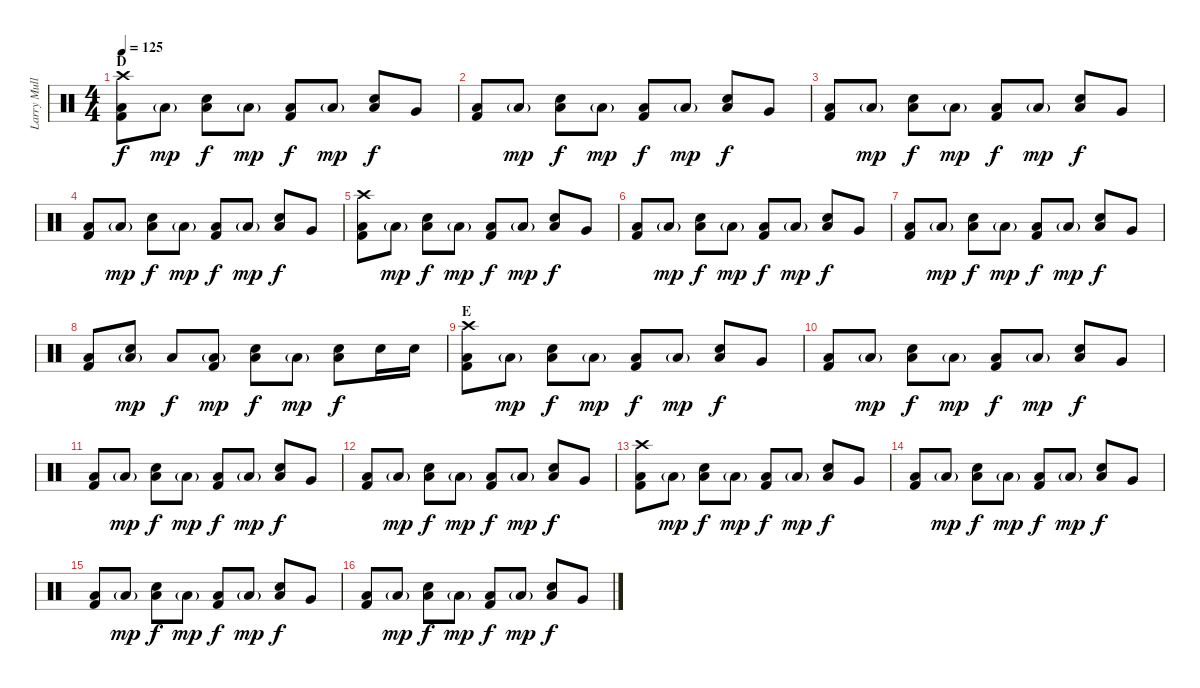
\track ("Larry Mullen Jr" "Larry Mull") {instrument percussion}
\staff {score}
\articulation defaults
\ts (4 4)
\section ("" "D")
\tempo 125
\clef neutral
\ks c
("Crash high (hit)" "Kick (hit) 2" "Low Floor Tom (hit)").8{dy f} "Low Floor Tom (hit)"{g}.8{dy mp} ("Snare (hit) 2" "Low Floor Tom (hit)").8{dy f} "Low Floor Tom (hit)"{g}.8{dy mp} ("Kick (hit) 2" "Low Floor Tom (hit)").8{dy f} "Low Floor Tom (hit)"{g}.8{dy mp} ("Snare (hit) 2" "Low Floor Tom (hit)").8{dy f} "Very Low Tom (hit)".8 |
("Kick (hit) 2" "Low Floor Tom (hit)").8 "Low Floor Tom (hit)"{g}.8{dy mp} ("Snare (hit) 2" "Low Floor Tom (hit)").8{dy f} "Low Floor Tom (hit)"{g}.8{dy mp} ("Kick (hit) 2" "Low Floor Tom (hit)").8{dy f} "Low Floor Tom (hit)"{g}.8{dy mp} ("Snare (hit) 2" "Low Floor Tom (hit)").8{dy f} "Very Low Tom (hit)".8 |
("Kick (hit) 2" "Low Floor Tom (hit)").8 "Low Floor Tom (hit)"{g}.8{dy mp} ("Snare (hit) 2" "Low Floor Tom (hit)").8{dy f} "Low Floor Tom (hit)"{g}.8{dy mp} ("Kick (hit) 2" "Low Floor Tom (hit)").8{dy f} "Low Floor Tom (hit)"{g}.8{dy mp} ("Snare (hit) 2" "Low Floor Tom (hit)").8{dy f} "Very Low Tom (hit)".8 |
("Kick (hit) 2" "Low Floor Tom (hit)").8 "Low Floor Tom (hit)"{g}.8{dy mp} ("Snare (hit) 2" "Low Floor Tom (hit)").8{dy f} "Low Floor Tom (hit)"{g}.8{dy mp} ("Kick (hit) 2" "Low Floor Tom (hit)").8{dy f} "Low Floor Tom (hit)"{g}.8{dy mp} ("Snare (hit) 2" "Low Floor Tom (hit)").8{dy f} "Very Low Tom (hit)".8 |
("Crash high (hit)" "Kick (hit) 2" "Low Floor Tom (hit)").8 "Low Floor Tom (hit)"{g}.8{dy mp} ("Snare (hit) 2" "Low Floor Tom (hit)").8{dy f} "Low Floor Tom (hit)"{g}.8{dy mp} ("Kick (hit) 2" "Low Floor Tom (hit)").8{dy f} "Low Floor Tom (hit)"{g}.8{dy mp} ("Snare (hit) 2" "Low Floor Tom (hit)").8{dy f} "Very Low Tom (hit)".8 |
("Kick (hit) 2" "Low Floor Tom (hit)").8 "Low Floor Tom (hit)"{g}.8{dy mp} ("Snare (hit) 2" "Low Floor Tom (hit)").8{dy f} "Low Floor Tom (hit)"{g}.8{dy mp} ("Kick (hit) 2" "Low Floor Tom (hit)").8{dy f} "Low Floor Tom (hit)"{g}.8{dy mp} ("Snare (hit) 2" "Low Floor Tom (hit)").8{dy f} "Very Low Tom (hit)".8 |
("Kick (hit) 2" "Low Floor Tom (hit)").8 "Low Floor Tom (hit)"{g}.8{dy mp} ("Snare (hit) 2" "Low Floor Tom (hit)").8{dy f} "Low Floor Tom (hit)"{g}.8{dy mp} ("Kick (hit) 2" "Low Floor Tom (hit)").8{dy f} "Low Floor Tom (hit)"{g}.8{dy mp} ("Snare (hit) 2" "Low Floor Tom (hit)").8{dy f} "Very Low Tom (hit)".8 |
("Kick (hit) 2" "Low Floor Tom (hit)").8 ("Snare (hit) 2" "Low Floor Tom (hit)"{g}).8{dy mp} "Low Floor Tom (hit)".8{dy f} ("Kick (hit) 2" "Low Floor Tom (hit)"{g}).8{dy mp} ("Snare (hit) 2" "Low Floor Tom (hit)").8{dy f} "Low Floor Tom (hit)"{g}.8{dy mp} ("Snare (hit) 2" "Low Floor Tom (hit)").8{dy f} "Snare (hit) 2".16 "Snare (hit) 2".16 |
\section ("" "E")
("Crash high (hit)" "Kick (hit) 2" "Low Floor Tom (hit)").8 "Low Floor Tom (hit)"{g}.8{dy mp} ("Snare (hit) 2" "Low Floor Tom (hit)").8{dy f} "Low Floor Tom (hit)"{g}.8{dy mp} ("Kick (hit) 2" "Low Floor Tom (hit)").8{dy f} "Low Floor Tom (hit)"{g}.8{dy mp} ("Snare (hit) 2" "Low Floor Tom (hit)").8{dy f} "Very Low Tom (hit)".8 |
("Kick (hit) 2" "Low Floor Tom (hit)").8 "Low Floor Tom (hit)"{g}.8{dy mp} ("Snare (hit) 2" "Low Floor Tom (hit)").8{dy f} "Low Floor Tom (hit)"{g}.8{dy mp} ("Kick (hit) 2" "Low Floor Tom (hit)").8{dy f} "Low Floor Tom (hit)"{g}.8{dy mp} ("Snare (hit) 2" "Low Floor Tom (hit)").8{dy f} "Very Low Tom (hit)".8 |
("Kick (hit) 2" "Low Floor Tom (hit)").8 "Low Floor Tom (hit)"{g}.8{dy mp} ("Snare (hit) 2" "Low Floor Tom (hit)").8{dy f} "Low Floor Tom (hit)"{g}.8{dy mp} ("Kick (hit) 2" "Low Floor Tom (hit)").8{dy f} "Low Floor Tom (hit)"{g}.8{dy mp} ("Snare (hit) 2" "Low Floor Tom (hit)").8{dy f} "Very Low Tom (hit)".8 |
("Kick (hit) 2" "Low Floor Tom (hit)").8 "Low Floor Tom (hit)"{g}.8{dy mp} ("Snare (hit) 2" "Low Floor Tom (hit)").8{dy f} "Low Floor Tom (hit)"{g}.8{dy mp} ("Kick (hit) 2" "Low Floor Tom (hit)").8{dy f} "Low Floor Tom (hit)"{g}.8{dy mp} ("Snare (hit) 2" "Low Floor Tom (hit)").8{dy f} "Very Low Tom (hit)".8 |
("Crash high (hit)" "Kick (hit) 2" "Low Floor Tom (hit)").8 "Low Floor Tom (hit)"{g}.8{dy mp} ("Snare (hit) 2" "Low Floor Tom (hit)").8{dy f} "Low Floor Tom (hit)"{g}.8{dy mp} ("Kick (hit) 2" "Low Floor Tom (hit)").8{dy f} "Low Floor Tom (hit)"{g}.8{dy mp} ("Snare (hit) 2" "Low Floor Tom (hit)").8{dy f} "Very Low Tom (hit)".8 |
("Kick (hit) 2" "Low Floor Tom (hit)").8 "Low Floor Tom (hit)"{g}.8{dy mp} ("Snare (hit) 2" "Low Floor Tom (hit)").8{dy f} "Low Floor Tom (hit)"{g}.8{dy mp} ("Kick (hit) 2" "Low Floor Tom (hit)").8{dy f} "Low Floor Tom (hit)"{g}.8{dy mp} ("Snare (hit) 2" "Low Floor Tom (hit)").8{dy f} "Very Low Tom (hit)".8 |
("Kick (hit) 2" "Low Floor Tom (hit)").8 "Low Floor Tom (hit)"{g}.8{dy mp} ("Snare (hit) 2" "Low Floor Tom (hit)").8{dy f} "Low Floor Tom (hit)"{g}.8{dy mp} ("Kick (hit) 2" "Low Floor Tom (hit)").8{dy f} "Low Floor Tom (hit)"{g}.8{dy mp} ("Snare (hit) 2" "Low Floor Tom (hit)").8{dy f} "Very Low Tom (hit)".8 |
("Kick (hit) 2" "Low Floor Tom (hit)").8 "Low Floor Tom (hit)"{g}.8{dy mp} ("Snare (hit) 2" "Low Floor Tom (hit)").8{dy f} "Low Floor Tom (hit)"{g}.8{dy mp} ("Kick (hit) 2" "Low Floor Tom (hit)").8{dy f} "Low Floor Tom (hit)"{g}.8{dy mp} ("Snare (hit) 2" "Low Floor Tom (hit)").8{dy f} "Very Low Tom (hit)".8
